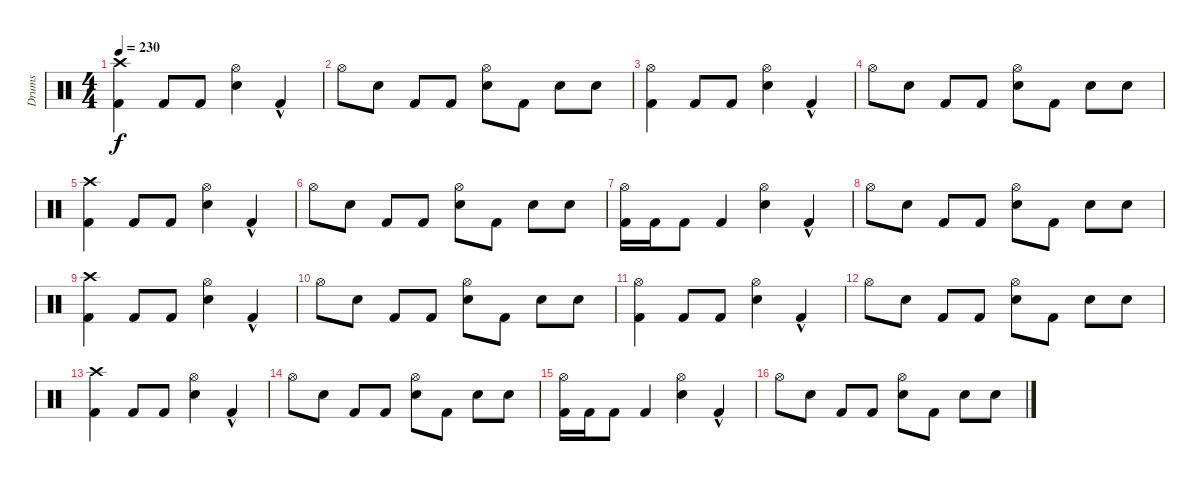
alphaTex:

\track ("Drums" "Drums") {instrument percussion}
\staff {score}
\articulation defaults
\ts (4 4)
\tempo 230
\clef neutral
\ks c
("Crash high (hit)" "Kick (hit) 2").4{dy f} "Kick (hit) 2".8 "Kick (hit) 2".8 ("Hi-Hat (open)" "Electric Snare (hit)").4 "Kick (hit) 2"{hac}.4 |
"Hi-Hat (open)".8 "Electric Snare (hit)".8 "Kick (hit) 2".8 "Kick (hit) 2".8 ("Hi-Hat (open)" "Electric Snare (hit)").8 "Kick (hit) 2".8 "Electric Snare (hit)".8 "Electric Snare (hit)".8 |
("Hi-Hat (open)" "Kick (hit) 2").4 "Kick (hit) 2".8 "Kick (hit) 2".8 ("Hi-Hat (open)" "Electric Snare (hit)").4 "Kick (hit) 2"{hac}.4 |
"Hi-Hat (open)".8 "Electric Snare (hit)".8 "Kick (hit) 2".8 "Kick (hit) 2".8 ("Hi-Hat (open)" "Electric Snare (hit)").8 "Kick (hit) 2".8 "Electric Snare (hit)".8 "Electric Snare (hit)".8 |
("Crash high (hit)" "Kick (hit) 2").4 "Kick (hit) 2".8 "Kick (hit) 2".8 ("Hi-Hat (open)" "Electric Snare (hit)").4 "Kick (hit) 2"{hac}.4 |
"Hi-Hat (open)".8 "Electric Snare (hit)".8 "Kick (hit) 2".8 "Kick (hit) 2".8 ("Hi-Hat (open)" "Electric Snare (hit)").8 "Kick (hit) 2".8 "Electric Snare (hit)".8 "Electric Snare (hit)".8 |
("Hi-Hat (open)" "Kick (hit) 2").16 "Kick (hit) 2".16 "Kick (hit) 2".8 "Kick (hit) 2".4 ("Hi-Hat (open)" "Electric Snare (hit)").4 "Kick (hit) 2"{hac}.4 |
"Hi-Hat (open)".8 "Electric Snare (hit)".8 "Kick (hit) 2".8 "Kick (hit) 2".8 ("Hi-Hat (open)" "Electric Snare (hit)").8 "Kick (hit) 2".8 "Electric Snare (hit)".8 "Electric Snare (hit)".8 |
("Crash high (hit)" "Kick (hit) 2").4 "Kick (hit) 2".8 "Kick (hit) 2".8 ("Hi-Hat (open)" "Electric Snare (hit)").4 "Kick (hit) 2"{hac}.4 |
"Hi-Hat (open)".8 "Electric Snare (hit)".8 "Kick (hit) 2".8 "Kick (hit) 2".8 ("Hi-Hat (open)" "Electric Snare (hit)").8 "Kick (hit) 2".8 "Electric Snare (hit)".8 "Electric Snare (hit)".8 |
("Hi-Hat (open)" "Kick (hit) 2").4 "Kick (hit) 2".8 "Kick (hit) 2".8 ("Hi-Hat (open)" "Electric Snare (hit)").4 "Kick (hit) 2"{hac}.4 |
"Hi-Hat (open)".8 "Electric Snare (hit)".8 "Kick (hit) 2".8 "Kick (hit) 2".8 ("Hi-Hat (open)" "Electric Snare (hit)").8 "Kick (hit) 2".8 "Electric Snare (hit)".8 "Electric Snare (hit)".8 |
("Crash high (hit)" "Kick (hit) 2").4 "Kick (hit) 2".8 "Kick (hit) 2".8 ("Hi-Hat (open)" "Electric Snare (hit)").4 "Kick (hit) 2"{hac}.4 |
"Hi-Hat (open)".8 "Electric Snare (hit)".8 "Kick (hit) 2".8 "Kick (hit) 2".8 ("Hi-Hat (open)" "Electric Snare (hit)").8 "Kick (hit) 2".8 "Electric Snare (hit)".8 "Electric Snare (hit)".8 |
("Hi-Hat (open)" "Kick (hit) 2").16 "Kick (hit) 2".16 "Kick (hit) 2".8 "Kick (hit) 2".4 ("Hi-Hat (open)" "Electric Snare (hit)").4 "Kick (hit) 2"{hac}.4 |
"Hi-Hat (open)".8 "Electric Snare (hit)".8 "Kick (hit) 2".8 "Kick (hit) 2".8 ("Hi-Hat (open)" "Electric Snare (hit)").8 "Kick (hit) 2".8 "Electric Snare (hit)".8 "Electric Snare (hit)".8
